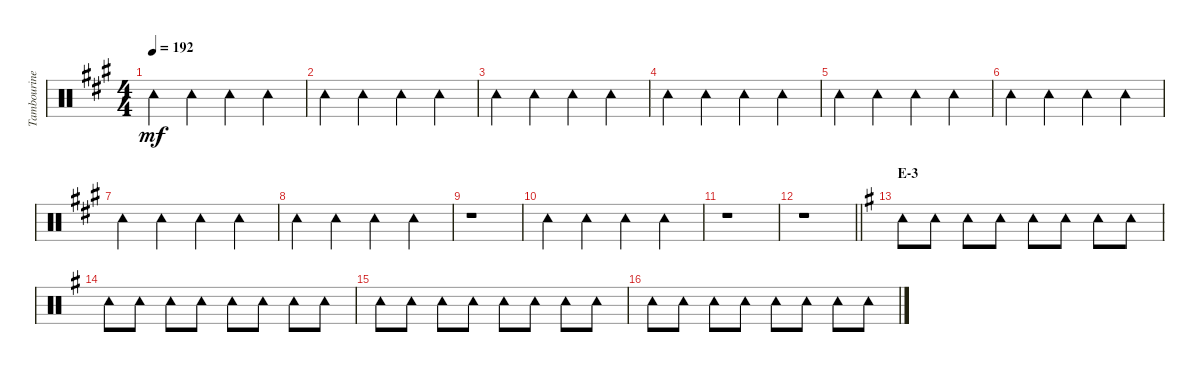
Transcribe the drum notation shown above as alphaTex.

\track ("Tambourine" "Tambourine") {instrument percussion}
\staff {score}
\articulation defaults
\ts (4 4)
\tempo 192
\clef neutral
\ks a "Tambourine (hit)".4{dy mf} "Tambourine (hit)".4 "Tambourine (hit)".4 "Tambourine (hit)".4
|
"Tambourine (hit)".4 "Tambourine (hit)".4 "Tambourine (hit)".4 "Tambourine (hit)".4 |
"Tambourine (hit)".4 "Tambourine (hit)".4 "Tambourine (hit)".4 "Tambourine (hit)".4 |
"Tambourine (hit)".4 "Tambourine (hit)".4 "Tambourine (hit)".4 "Tambourine (hit)".4 |
"Tambourine (hit)".4 "Tambourine (hit)".4 "Tambourine (hit)".4 "Tambourine (hit)".4 |
"Tambourine (hit)".4 "Tambourine (hit)".4 "Tambourine (hit)".4 "Tambourine (hit)".4 |
"Tambourine (hit)".4 "Tambourine (hit)".4 "Tambourine (hit)".4 "Tambourine (hit)".4 |
"Tambourine (hit)".4 "Tambourine (hit)".4 "Tambourine (hit)".4 "Tambourine (hit)".4 |
r.1 |
"Tambourine (hit)".4 "Tambourine (hit)".4 "Tambourine (hit)".4 "Tambourine (hit)".4 |
r.1 |
\barLineRight lightlight
r.1 |
\section ("" "E-3")
\ks g "Tambourine (hit)".8 "Tambourine (hit)".8 "Tambourine (hit)".8 "Tambourine (hit)".8 "Tambourine (hit)".8 "Tambourine (hit)".8 "Tambourine (hit)".8 "Tambourine (hit)".8
|
"Tambourine (hit)".8 "Tambourine (hit)".8 "Tambourine (hit)".8 "Tambourine (hit)".8 "Tambourine (hit)".8 "Tambourine (hit)".8 "Tambourine (hit)".8 "Tambourine (hit)".8 |
"Tambourine (hit)".8 "Tambourine (hit)".8 "Tambourine (hit)".8 "Tambourine (hit)".8 "Tambourine (hit)".8 "Tambourine (hit)".8 "Tambourine (hit)".8 "Tambourine (hit)".8 |
"Tambourine (hit)".8 "Tambourine (hit)".8 "Tambourine (hit)".8 "Tambourine (hit)".8 "Tambourine (hit)".8 "Tambourine (hit)".8 "Tambourine (hit)".8 "Tambourine (hit)".8
